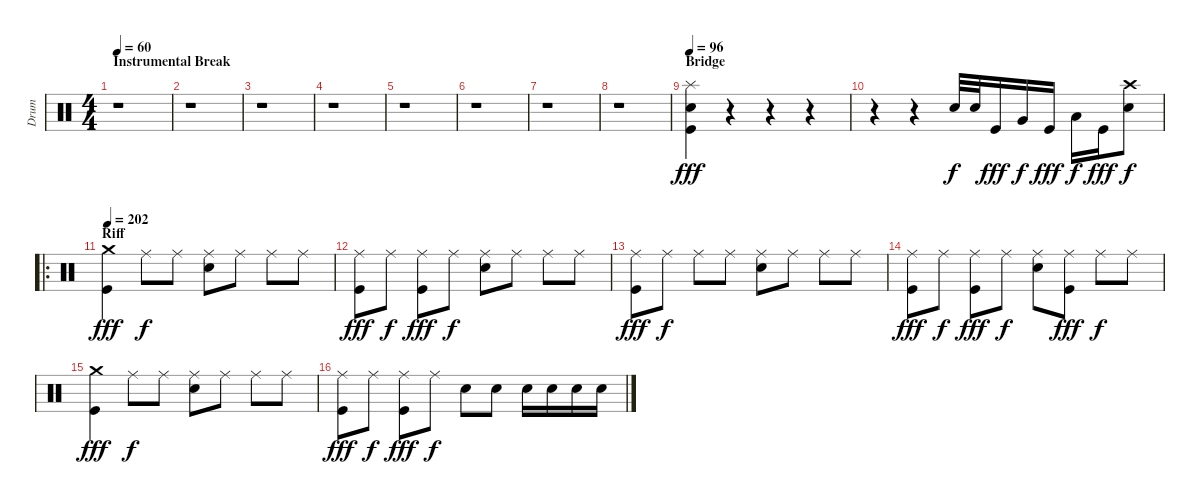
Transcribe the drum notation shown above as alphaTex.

\track ("Drum" "Drum") {instrument percussion}
\staff {score}
\articulation defaults
\ts (4 4)
\section ("" "Instrumental Break")
\tempo 60
\clef neutral
\ks c
r.1{dy fff} |
r.1 |
r.1 |
r.1 |
r.1 |
r.1 |
r.1 |
r.1 |
\section ("" "Bridge")
\tempo 96
("Splash (hit)" "Electric Snare (hit)" "Kick (hit)").4 r.4 r.4 r.4 |
r.4 r.4 "Electric Snare (hit)".32{dy f} "Electric Snare (hit)".32 "Kick (hit)".16{dy fff} "Very Low Tom (hit)".16{dy f} "Kick (hit)".16{dy fff} "Low Floor Tom (hit)".16{dy f} "Kick (hit)".16{dy fff} ("Crash high (hit)" "Electric Snare (hit)").8{dy f} |
\ro
\section ("" "Riff")
\tempo 202
("Crash medium (hit)" "Kick (hit)").4{dy fff} "Ride (middle)".8{dy f} "Ride (middle)".8 ("Ride (middle)" "Electric Snare (hit)").8 "Ride (middle)".8 "Ride (middle)".8 "Ride (middle)".8 |
("Ride (middle)" "Kick (hit)").8{dy fff} "Ride (middle)".8{dy f} ("Ride (middle)" "Kick (hit)").8{dy fff} "Ride (middle)".8{dy f} ("Ride (middle)" "Electric Snare (hit)").8 "Ride (middle)".8 "Ride (middle)".8 "Ride (middle)".8 |
("Ride (middle)" "Kick (hit)").8{dy fff} "Ride (middle)".8{dy f} "Ride (middle)".8 "Ride (middle)".8 ("Ride (middle)" "Electric Snare (hit)").8 "Ride (middle)".8 "Ride (middle)".8 "Ride (middle)".8 |
("Ride (middle)" "Kick (hit)").8{dy fff} "Ride (middle)".8{dy f} ("Ride (middle)" "Kick (hit)").8{dy fff} "Ride (middle)".8{dy f} ("Ride (middle)" "Electric Snare (hit)").8 ("Ride (middle)" "Kick (hit)").8{dy fff} "Ride (middle)".8{dy f} "Ride (middle)".8 |
("Crash medium (hit)" "Kick (hit)").4{dy fff} "Ride (middle)".8{dy f} "Ride (middle)".8 ("Ride (middle)" "Electric Snare (hit)").8 "Ride (middle)".8 "Ride (middle)".8 "Ride (middle)".8 |
("Ride (middle)" "Kick (hit)").8{dy fff} "Ride (middle)".8{dy f} ("Ride (middle)" "Kick (hit)").8{dy fff} "Ride (middle)".8{dy f} "Electric Snare (hit)".8 "Electric Snare (hit)".8 "Electric Snare (hit)".16 "Electric Snare (hit)".16 "Electric Snare (hit)".16 "Electric Snare (hit)".16
